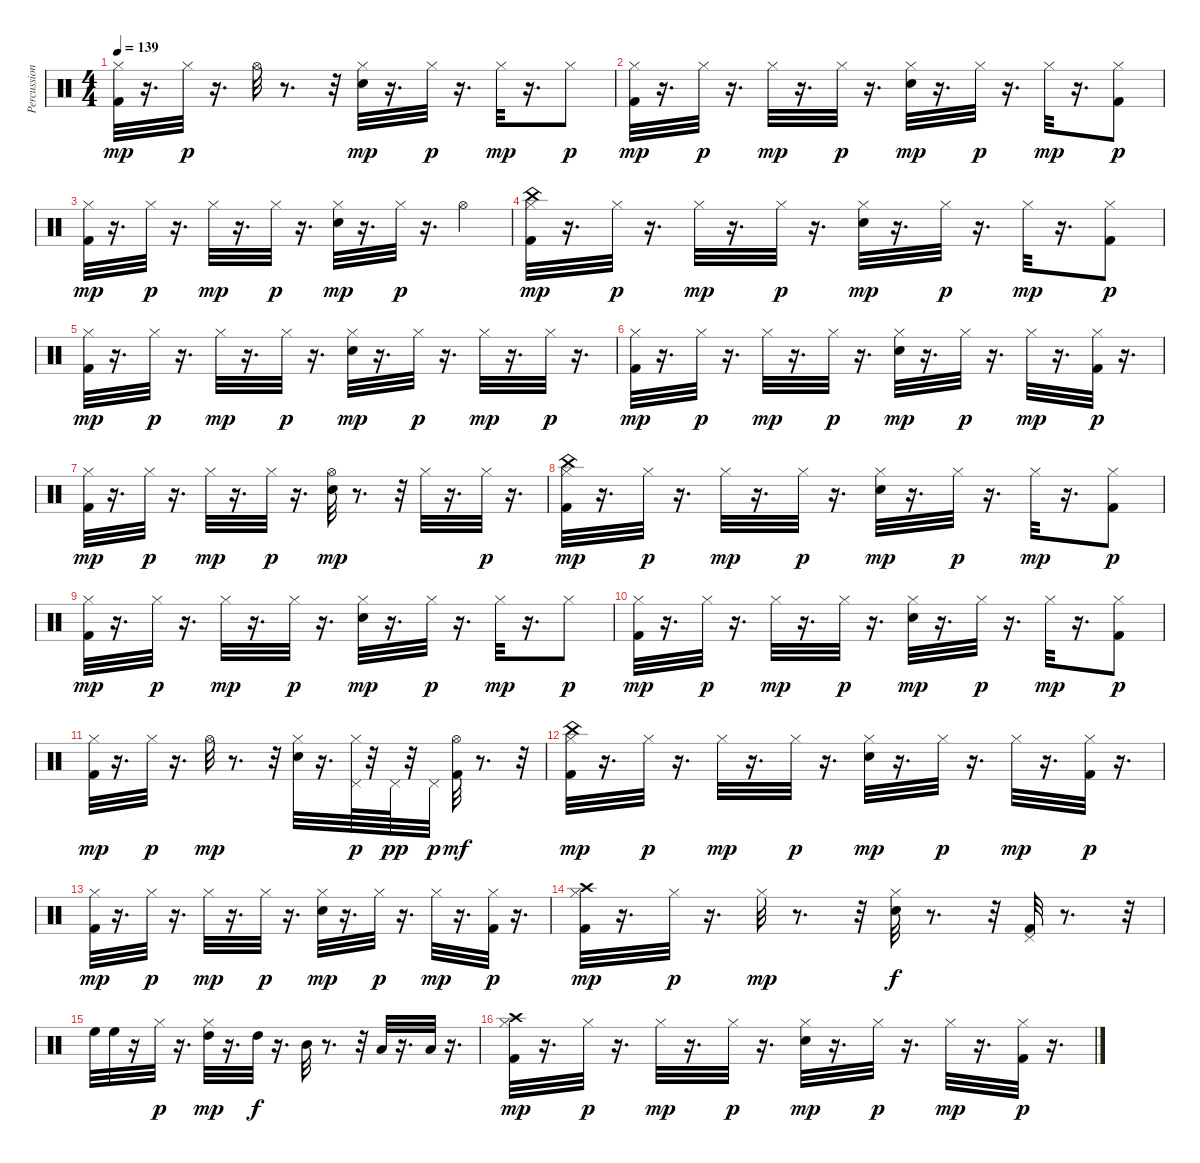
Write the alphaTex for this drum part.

\track ("Percussion" "Percussion") {instrument percussion}
\staff {score}
\articulation defaults
\ts (4 4)
\tempo 139
\clef neutral
\ks c
("Hi-Hat (closed)" "Kick (hit) 2").32{dy mp} r.16{d} "Hi-Hat (closed)".32{dy p} r.16{d} "Hi-Hat (open)".32 r.8{d} r.32 ("Hi-Hat (closed)" "Snare (hit) 2").32{dy mp} r.16{d} "Hi-Hat (closed)".32{dy p} r.16{d} "Hi-Hat (closed)".32{dy mp} r.16{d} "Hi-Hat (closed)".8{dy p} |
("Hi-Hat (closed)" "Kick (hit) 2").32{dy mp} r.16{d} "Hi-Hat (closed)".32{dy p} r.16{d} "Hi-Hat (closed)".32{dy mp} r.16{d} "Hi-Hat (closed)".32{dy p} r.16{d} ("Hi-Hat (closed)" "Snare (hit) 2").32{dy mp} r.16{d} "Hi-Hat (closed)".32{dy p} r.16{d} "Hi-Hat (closed)".32{dy mp} r.16{d} ("Hi-Hat (closed)" "Kick (hit) 2").8{dy p} |
("Hi-Hat (closed)" "Kick (hit) 2").32{dy mp} r.16{d} "Hi-Hat (closed)".32{dy p} r.16{d} "Hi-Hat (closed)".32{dy mp} r.16{d} "Hi-Hat (closed)".32{dy p} r.16{d} ("Hi-Hat (closed)" "Snare (hit) 2").32{dy mp} r.16{d} "Hi-Hat (closed)".32{dy p} r.16{d} "Hi-Hat (open)".4 |
("China (hit)" "Hi-Hat (closed)" "Kick (hit) 2").32{dy mp} r.16{d} "Hi-Hat (closed)".32{dy p} r.16{d} "Hi-Hat (closed)".32{dy mp} r.16{d} "Hi-Hat (closed)".32{dy p} r.16{d} ("Hi-Hat (closed)" "Snare (hit) 2").32{dy mp} r.16{d} "Hi-Hat (closed)".32{dy p} r.16{d} "Hi-Hat (closed)".32{dy mp} r.16{d} ("Hi-Hat (closed)" "Kick (hit) 2").8{dy p} |
("Hi-Hat (closed)" "Kick (hit) 2").32{dy mp} r.16{d} "Hi-Hat (closed)".32{dy p} r.16{d} "Hi-Hat (closed)".32{dy mp} r.16{d} "Hi-Hat (closed)".32{dy p} r.16{d} ("Hi-Hat (closed)" "Snare (hit) 2").32{dy mp} r.16{d} "Hi-Hat (closed)".32{dy p} r.16{d} "Hi-Hat (closed)".32{dy mp} r.16{d} "Hi-Hat (closed)".32{dy p} r.16{d} |
("Hi-Hat (closed)" "Kick (hit) 2").32{dy mp} r.16{d} "Hi-Hat (closed)".32{dy p} r.16{d} "Hi-Hat (closed)".32{dy mp} r.16{d} "Hi-Hat (closed)".32{dy p} r.16{d} ("Hi-Hat (closed)" "Snare (hit) 2").32{dy mp} r.16{d} "Hi-Hat (closed)".32{dy p} r.16{d} "Hi-Hat (closed)".32{dy mp} r.16{d} ("Hi-Hat (closed)" "Kick (hit) 2").32{dy p} r.16{d} |
("Hi-Hat (closed)" "Kick (hit) 2").32{dy mp} r.16{d} "Hi-Hat (closed)".32{dy p} r.16{d} "Hi-Hat (closed)".32{dy mp} r.16{d} "Hi-Hat (closed)".32{dy p} r.16{d} ("Hi-Hat (open)" "Snare (hit) 2").32{dy mp} r.8{d} r.32 "Hi-Hat (closed)".32 r.16{d} "Hi-Hat (closed)".32{dy p} r.16{d} |
("China (hit)" "Hi-Hat (closed)" "Kick (hit) 2").32{dy mp} r.16{d} "Hi-Hat (closed)".32{dy p} r.16{d} "Hi-Hat (closed)".32{dy mp} r.16{d} "Hi-Hat (closed)".32{dy p} r.16{d} ("Hi-Hat (closed)" "Snare (hit) 2").32{dy mp} r.16{d} "Hi-Hat (closed)".32{dy p} r.16{d} "Hi-Hat (closed)".32{dy mp} r.16{d} ("Hi-Hat (closed)" "Kick (hit) 2").8{dy p} |
("Hi-Hat (closed)" "Kick (hit) 2").32{dy mp} r.16{d} "Hi-Hat (closed)".32{dy p} r.16{d} "Hi-Hat (closed)".32{dy mp} r.16{d} "Hi-Hat (closed)".32{dy p} r.16{d} ("Hi-Hat (closed)" "Snare (hit) 2").32{dy mp} r.16{d} "Hi-Hat (closed)".32{dy p} r.16{d} "Hi-Hat (closed)".32{dy mp} r.16{d} "Hi-Hat (closed)".8{dy p} |
("Hi-Hat (closed)" "Kick (hit) 2").32{dy mp} r.16{d} "Hi-Hat (closed)".32{dy p} r.16{d} "Hi-Hat (closed)".32{dy mp} r.16{d} "Hi-Hat (closed)".32{dy p} r.16{d} ("Hi-Hat (closed)" "Snare (hit) 2").32{dy mp} r.16{d} "Hi-Hat (closed)".32{dy p} r.16{d} "Hi-Hat (closed)".32{dy mp} r.16{d} ("Hi-Hat (closed)" "Kick (hit) 2").8{dy p} |
("Hi-Hat (closed)" "Kick (hit) 2").32{dy mp} r.16{d} "Hi-Hat (closed)".32{dy p} r.16{d} "Hi-Hat (open)".32{dy mp} r.8{d} r.32 ("Hi-Hat (closed)" "Snare (hit) 2").32 r.16{d} ("Pedal Hi-Hat (hit)" "Hi-Hat (closed)").64{dy p} r.32 "Pedal Hi-Hat (hit)".64{dy pp} r.32 "Pedal Hi-Hat (hit)".32{dy p} ("Hi-Hat (open)" "Kick (hit) 2").32{dy mf} r.8{d} r.32 |
("China (hit)" "Hi-Hat (closed)" "Kick (hit) 2").32{dy mp} r.16{d} "Hi-Hat (closed)".32{dy p} r.16{d} "Hi-Hat (closed)".32{dy mp} r.16{d} "Hi-Hat (closed)".32{dy p} r.16{d} ("Hi-Hat (closed)" "Snare (hit) 2").32{dy mp} r.16{d} "Hi-Hat (closed)".32{dy p} r.16{d} "Hi-Hat (closed)".32{dy mp} r.16{d} ("Hi-Hat (closed)" "Kick (hit) 2").32{dy p} r.16{d} |
("Hi-Hat (closed)" "Kick (hit) 2").32{dy mp} r.16{d} "Hi-Hat (closed)".32{dy p} r.16{d} "Hi-Hat (closed)".32{dy mp} r.16{d} "Hi-Hat (closed)".32{dy p} r.16{d} ("Hi-Hat (closed)" "Snare (hit) 2").32{dy mp} r.16{d} "Hi-Hat (closed)".32{dy p} r.16{d} "Hi-Hat (closed)".32{dy mp} r.16{d} ("Hi-Hat (closed)" "Kick (hit) 2").32{dy p} r.16{d} |
("Crash high (hit)" "Hi-Hat (closed)" "Kick (hit) 2").32{dy mp} r.16{d} "Hi-Hat (closed)".32{dy p} r.16{d} "Hi-Hat (closed)".32{dy mp} r.8{d} r.32 ("Hi-Hat (closed)" "Snare (hit) 2").32{dy f} r.8{d} r.32 ("Pedal Hi-Hat (hit)" "Kick (hit) 2").32 r.8{d} r.32 |
"High Floor Tom (hit)".32 "High Floor Tom (hit)".32 r.16 "Hi-Hat (closed)".32{dy p} r.16{d} ("High Tom (hit)" "Hi-Hat (closed)").32{dy mp} r.16{d} "High Tom (hit)".32{dy f} r.16{d} "Mid Tom (hit)".32 r.8{d} r.32 "Low Tom (hit)".32 r.16{d} "Low Tom (hit)".32 r.16{d} |
("Crash high (hit)" "Hi-Hat (closed)" "Kick (hit) 2").32{dy mp} r.16{d} "Hi-Hat (closed)".32{dy p} r.16{d} "Hi-Hat (closed)".32{dy mp} r.16{d} "Hi-Hat (closed)".32{dy p} r.16{d} ("Hi-Hat (closed)" "Snare (hit) 2").32{dy mp} r.16{d} "Hi-Hat (closed)".32{dy p} r.16{d} "Hi-Hat (closed)".32{dy mp} r.16{d} ("Hi-Hat (closed)" "Kick (hit) 2").32{dy p} r.16{d}
